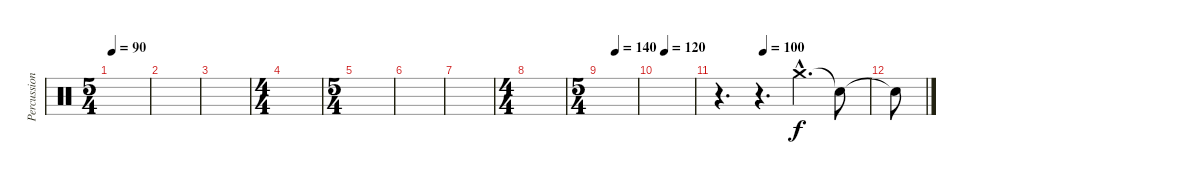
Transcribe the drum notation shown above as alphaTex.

\track ("Percussion" "Percussion") {instrument percussion}
\staff {score}
\articulation defaults
\ts (5 4)
\tempo 90
\clef neutral
\ks c
|
|
|
\ts (4 4)
|
\ts (5 4)
|
|
|
\ts (4 4)
|
\ts (5 4)
\tempo (140 0.4)
|
\tempo (120 0.2)
|
\tempo (100 0.3)
r.4{d} r.4{d} "Crash medium (hit)"{hac}.4{d volume 10} "Snare (hit)"{t}.8 |
"Snare (hit)"{t}.8
